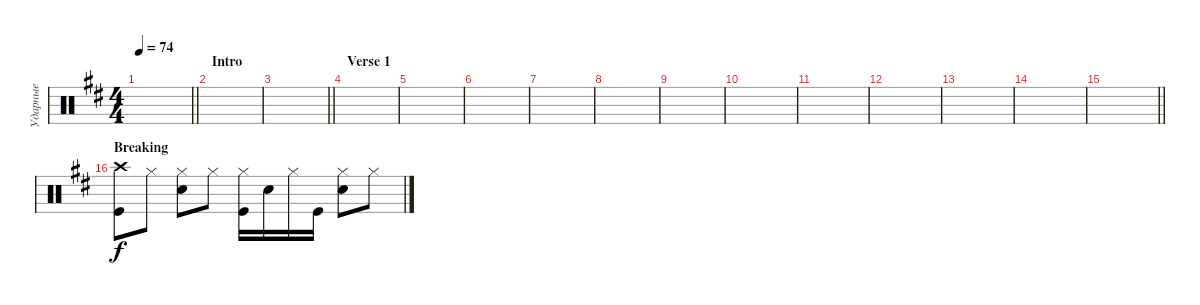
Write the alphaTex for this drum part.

\track ("Ударные" "Ударные") {instrument percussion}
\staff {score}
\articulation defaults
\ts (4 4)
\tempo 74
\clef neutral
\barLineRight lightlight
\ks bminor
|
\section ("" "Intro")
|
\barLineRight lightlight
|
\section ("" "Verse 1")
|
|
|
|
|
|
|
|
|
|
|
\barLineRight lightlight
|
\section ("" "Breaking")
("Kick (hit)" "Crash high (hit)").8 "Hi-Hat (closed)".8 ("Snare (hit) 2" "Hi-Hat (closed)").8 "Hi-Hat (closed)".8 ("Hi-Hat (closed)" "Kick (hit)").16 "Snare (hit) 2".16 "Hi-Hat (closed)".16 "Kick (hit)".16 ("Hi-Hat (closed)" "Snare (hit) 2").8 "Hi-Hat (closed)".8
